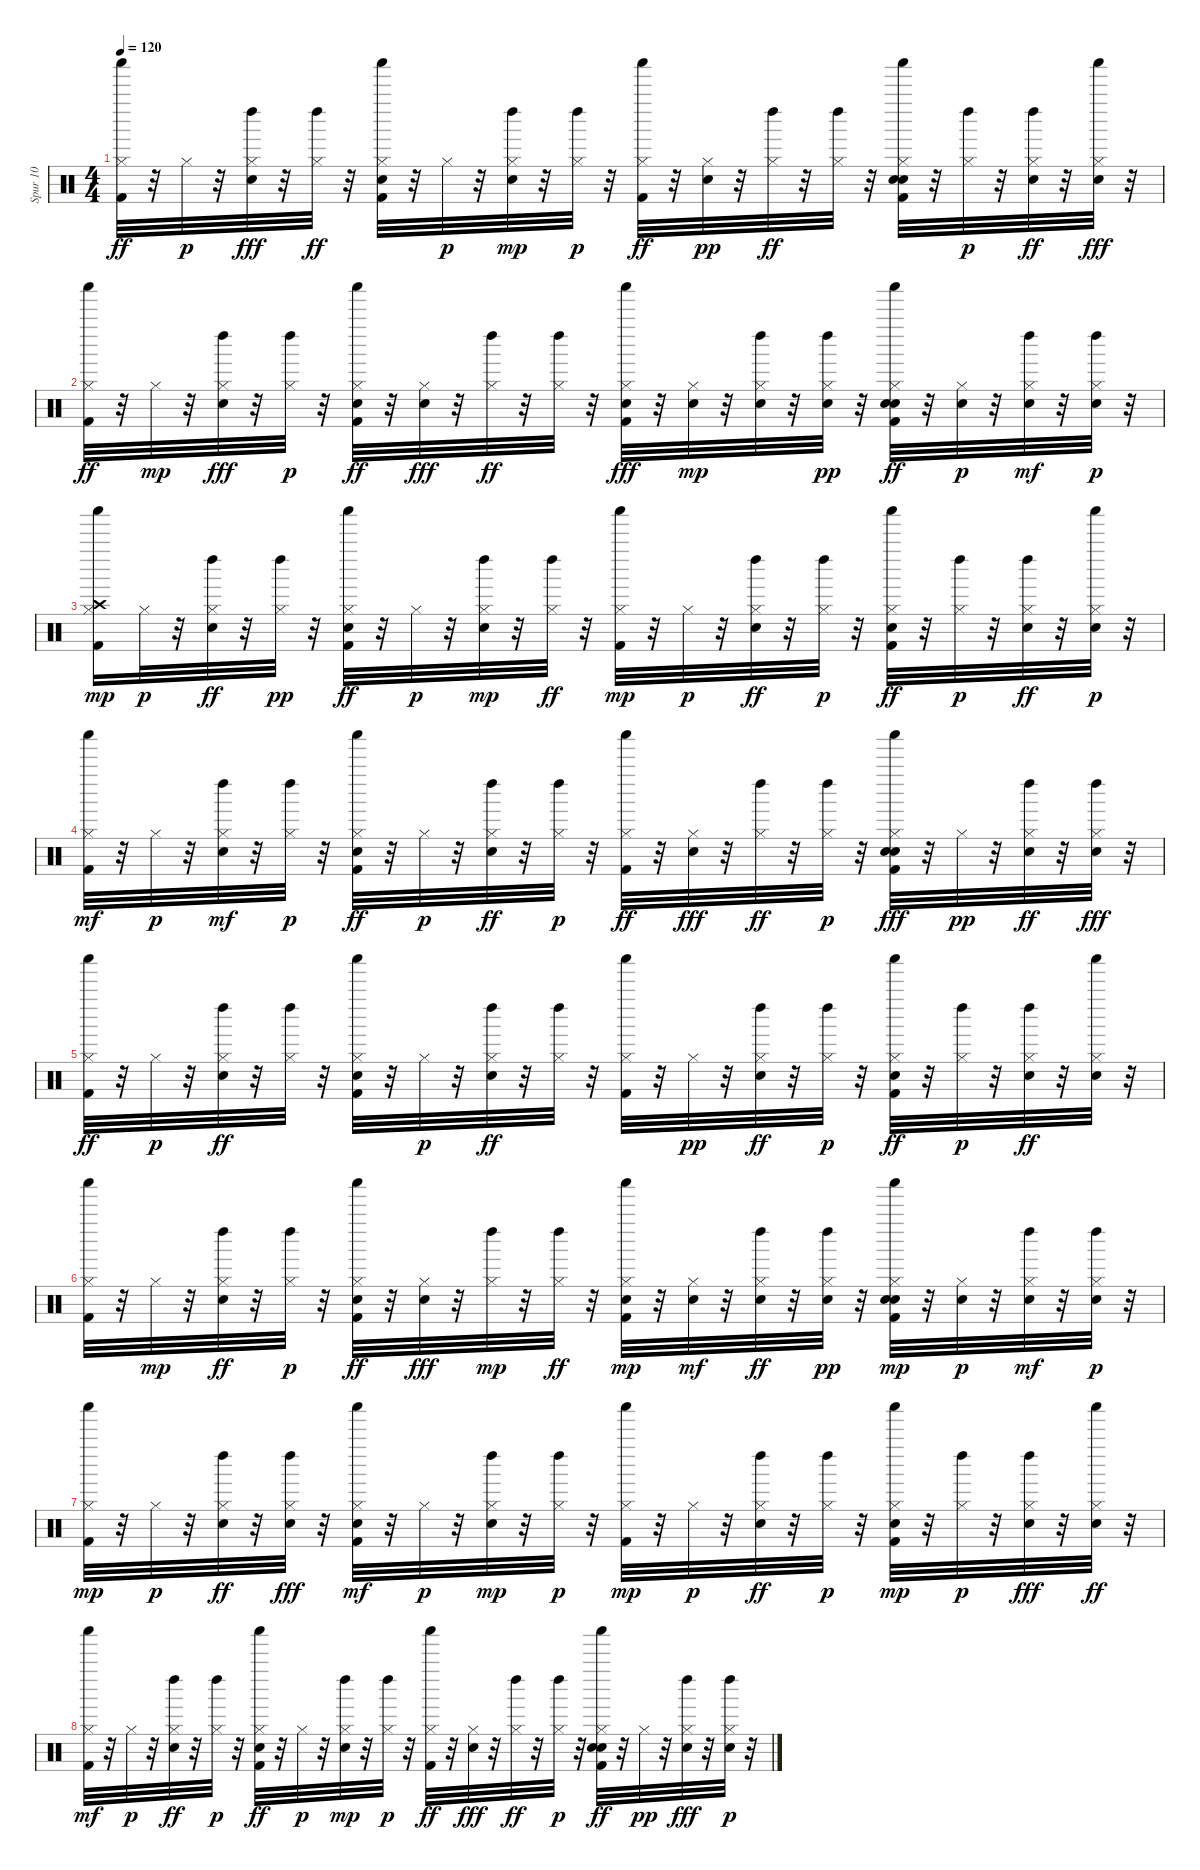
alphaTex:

\track ("Spur 10" "Spur 10") {instrument percussion}
\staff {score}
\articulation defaults
\ts (4 4)
\tempo 120
\clef neutral
\ks c
("Shaker (hit)" "Kick (hit) 2" "Hi-Hat (closed)").32{dy ff} r.32 "Hi-Hat (closed)".32{dy p} r.32 ("Left Maraca (hit)" "Hi-Hat (closed)" "Electric Snare (hit)").32{dy fff} r.32 ("Hi-Hat (closed)" "Left Maraca (hit)").32{dy ff} r.32 ("Kick (hit) 2" "Shaker (hit)" "Hi-Hat (closed)" "Snare (hit) 2").32 r.32 "Hi-Hat (closed)".32{dy p} r.32 ("Electric Snare (hit)" "Hi-Hat (closed)" "Left Maraca (hit)").32{dy mp} r.32 ("Left Maraca (hit)" "Hi-Hat (closed)").32{dy p} r.32 ("Hi-Hat (closed)" "Shaker (hit)" "Kick (hit) 2").32{dy ff} r.32 ("Electric Snare (hit)" "Hi-Hat (closed)").32{dy pp} r.32 ("Hi-Hat (closed)" "Left Maraca (hit)").32{dy ff} r.32 ("Hi-Hat (closed)" "Left Maraca (hit)").32 r.32 ("Hi-Hat (closed)" "Electric Snare (hit)" "Kick (hit) 2" "Shaker (hit)" "Snare (hit) 2").32 r.32 ("Left Maraca (hit)" "Hi-Hat (closed)").32{dy p} r.32 ("Left Maraca (hit)" "Electric Snare (hit)" "Hi-Hat (closed)").32{dy ff} r.32 ("Hi-Hat (closed)" "Electric Snare (hit)" "Shaker (hit)").32{dy fff} r.32 |
("Hi-Hat (closed)" "Kick (hit) 2" "Shaker (hit)").32{dy ff} r.32 "Hi-Hat (closed)".32{dy mp} r.32 ("Left Maraca (hit)" "Hi-Hat (closed)" "Electric Snare (hit)").32{dy fff} r.32 ("Hi-Hat (closed)" "Left Maraca (hit)").32{dy p} r.32 ("Snare (hit) 2" "Shaker (hit)" "Hi-Hat (closed)" "Kick (hit) 2").32{dy ff} r.32 ("Hi-Hat (closed)" "Electric Snare (hit)").32{dy fff} r.32 ("Left Maraca (hit)" "Hi-Hat (closed)").32{dy ff} r.32 ("Hi-Hat (closed)" "Left Maraca (hit)").32 r.32 ("Kick (hit) 2" "Hi-Hat (closed)" "Electric Snare (hit)" "Shaker (hit)").32{dy fff} r.32 ("Hi-Hat (closed)" "Electric Snare (hit)").32{dy mp} r.32 ("Left Maraca (hit)" "Hi-Hat (closed)" "Electric Snare (hit)").32 r.32 ("Electric Snare (hit)" "Left Maraca (hit)" "Hi-Hat (closed)").32{dy pp} r.32 ("Shaker (hit)" "Electric Snare (hit)" "Hi-Hat (closed)" "Kick (hit) 2" "Snare (hit) 2").32{dy ff} r.32 ("Electric Snare (hit)" "Hi-Hat (closed)").32{dy p} r.32 ("Electric Snare (hit)" "Hi-Hat (closed)" "Left Maraca (hit)").32{dy mf} r.32 ("Left Maraca (hit)" "Electric Snare (hit)" "Hi-Hat (closed)").32{dy p} r.32 |
("Crash high (hit)" "Kick (hit) 2" "Shaker (hit)" "Hi-Hat (closed)").16{dy mp} "Hi-Hat (closed)".32{dy p} r.32 ("Electric Snare (hit)" "Hi-Hat (closed)" "Left Maraca (hit)").32{dy ff} r.32 ("Left Maraca (hit)" "Hi-Hat (closed)").32{dy pp} r.32 ("Kick (hit) 2" "Hi-Hat (closed)" "Shaker (hit)" "Snare (hit) 2").32{dy ff} r.32 "Hi-Hat (closed)".32{dy p} r.32 ("Hi-Hat (closed)" "Electric Snare (hit)" "Left Maraca (hit)").32{dy mp} r.32 ("Hi-Hat (closed)" "Left Maraca (hit)").32{dy ff} r.32 ("Kick (hit) 2" "Hi-Hat (closed)" "Shaker (hit)").32{dy mp} r.32 "Hi-Hat (closed)".32{dy p} r.32 ("Electric Snare (hit)" "Hi-Hat (closed)" "Left Maraca (hit)").32{dy ff} r.32 ("Left Maraca (hit)" "Hi-Hat (closed)").32{dy p} r.32 ("Snare (hit) 2" "Hi-Hat (closed)" "Kick (hit) 2" "Shaker (hit)").32{dy ff} r.32 ("Hi-Hat (closed)" "Left Maraca (hit)").32{dy p} r.32 ("Hi-Hat (closed)" "Electric Snare (hit)" "Left Maraca (hit)").32{dy ff} r.32 ("Electric Snare (hit)" "Hi-Hat (closed)" "Shaker (hit)").32{dy p} r.32 |
("Shaker (hit)" "Kick (hit) 2" "Hi-Hat (closed)").32{dy mf} r.32 "Hi-Hat (closed)".32{dy p} r.32 ("Hi-Hat (closed)" "Electric Snare (hit)" "Left Maraca (hit)").32{dy mf} r.32 ("Hi-Hat (closed)" "Left Maraca (hit)").32{dy p} r.32 ("Snare (hit) 2" "Hi-Hat (closed)" "Kick (hit) 2" "Shaker (hit)").32{dy ff} r.32 "Hi-Hat (closed)".32{dy p} r.32 ("Left Maraca (hit)" "Electric Snare (hit)" "Hi-Hat (closed)").32{dy ff} r.32 ("Left Maraca (hit)" "Hi-Hat (closed)").32{dy p} r.32 ("Kick (hit) 2" "Shaker (hit)" "Hi-Hat (closed)").32{dy ff} r.32 ("Hi-Hat (closed)" "Electric Snare (hit)").32{dy fff} r.32 ("Hi-Hat (closed)" "Left Maraca (hit)").32{dy ff} r.32 ("Hi-Hat (closed)" "Left Maraca (hit)").32{dy p} r.32 ("Shaker (hit)" "Snare (hit) 2" "Kick (hit) 2" "Hi-Hat (closed)" "Electric Snare (hit)").32{dy fff} r.32 "Hi-Hat (closed)".32{dy pp} r.32 ("Left Maraca (hit)" "Electric Snare (hit)" "Hi-Hat (closed)").32{dy ff} r.32 ("Left Maraca (hit)" "Hi-Hat (closed)" "Electric Snare (hit)").32{dy fff} r.32 |
("Kick (hit) 2" "Hi-Hat (closed)" "Shaker (hit)").32{dy ff} r.32 "Hi-Hat (closed)".32{dy p} r.32 ("Electric Snare (hit)" "Left Maraca (hit)" "Hi-Hat (closed)").32{dy ff} r.32 ("Hi-Hat (closed)" "Left Maraca (hit)").32 r.32 ("Kick (hit) 2" "Snare (hit) 2" "Shaker (hit)" "Hi-Hat (closed)").32 r.32 "Hi-Hat (closed)".32{dy p} r.32 ("Left Maraca (hit)" "Electric Snare (hit)" "Hi-Hat (closed)").32{dy ff} r.32 ("Hi-Hat (closed)" "Left Maraca (hit)").32 r.32 ("Hi-Hat (closed)" "Kick (hit) 2" "Shaker (hit)").32 r.32 "Hi-Hat (closed)".32{dy pp} r.32 ("Left Maraca (hit)" "Electric Snare (hit)" "Hi-Hat (closed)").32{dy ff} r.32 ("Left Maraca (hit)" "Hi-Hat (closed)").32{dy p} r.32 ("Hi-Hat (closed)" "Kick (hit) 2" "Snare (hit) 2" "Shaker (hit)").32{dy ff} r.32 ("Left Maraca (hit)" "Hi-Hat (closed)").32{dy p} r.32 ("Electric Snare (hit)" "Hi-Hat (closed)" "Left Maraca (hit)").32{dy ff} r.32 ("Hi-Hat (closed)" "Shaker (hit)" "Electric Snare (hit)").32 r.32 |
("Kick (hit) 2" "Shaker (hit)" "Hi-Hat (closed)").32 r.32 "Hi-Hat (closed)".32{dy mp} r.32 ("Electric Snare (hit)" "Left Maraca (hit)" "Hi-Hat (closed)").32{dy ff} r.32 ("Hi-Hat (closed)" "Left Maraca (hit)").32{dy p} r.32 ("Shaker (hit)" "Hi-Hat (closed)" "Snare (hit) 2" "Kick (hit) 2").32{dy ff} r.32 ("Hi-Hat (closed)" "Electric Snare (hit)").32{dy fff} r.32 ("Hi-Hat (closed)" "Left Maraca (hit)").32{dy mp} r.32 ("Hi-Hat (closed)" "Left Maraca (hit)").32{dy ff} r.32 ("Shaker (hit)" "Electric Snare (hit)" "Kick (hit) 2" "Hi-Hat (closed)").32{dy mp} r.32 ("Hi-Hat (closed)" "Electric Snare (hit)").32{dy mf} r.32 ("Electric Snare (hit)" "Hi-Hat (closed)" "Left Maraca (hit)").32{dy ff} r.32 ("Electric Snare (hit)" "Hi-Hat (closed)" "Left Maraca (hit)").32{dy pp} r.32 ("Electric Snare (hit)" "Kick (hit) 2" "Snare (hit) 2" "Hi-Hat (closed)" "Shaker (hit)").32{dy mp} r.32 ("Electric Snare (hit)" "Hi-Hat (closed)").32{dy p} r.32 ("Hi-Hat (closed)" "Electric Snare (hit)" "Left Maraca (hit)").32{dy mf} r.32 ("Left Maraca (hit)" "Electric Snare (hit)" "Hi-Hat (closed)").32{dy p} r.32 |
("Shaker (hit)" "Kick (hit) 2" "Hi-Hat (closed)").32{dy mp} r.32 "Hi-Hat (closed)".32{dy p} r.32 ("Left Maraca (hit)" "Electric Snare (hit)" "Hi-Hat (closed)").32{dy ff} r.32 ("Hi-Hat (closed)" "Left Maraca (hit)" "Electric Snare (hit)").32{dy fff} r.32 ("Kick (hit) 2" "Snare (hit) 2" "Hi-Hat (closed)" "Shaker (hit)").32{dy mf} r.32 "Hi-Hat (closed)".32{dy p} r.32 ("Electric Snare (hit)" "Hi-Hat (closed)" "Left Maraca (hit)").32{dy mp} r.32 ("Left Maraca (hit)" "Hi-Hat (closed)").32{dy p} r.32 ("Kick (hit) 2" "Shaker (hit)" "Hi-Hat (closed)").32{dy mp} r.32 "Hi-Hat (closed)".32{dy p} r.32 ("Left Maraca (hit)" "Electric Snare (hit)" "Hi-Hat (closed)").32{dy ff} r.32 ("Left Maraca (hit)" "Hi-Hat (closed)").32{dy p} r.32 ("Shaker (hit)" "Snare (hit) 2" "Kick (hit) 2" "Hi-Hat (closed)").32{dy mp} r.32 ("Left Maraca (hit)" "Hi-Hat (closed)").32{dy p} r.32 ("Left Maraca (hit)" "Hi-Hat (closed)" "Electric Snare (hit)").32{dy fff} r.32 ("Hi-Hat (closed)" "Shaker (hit)" "Electric Snare (hit)").32{dy ff} r.32 |
("Shaker (hit)" "Kick (hit) 2" "Hi-Hat (closed)").32{dy mf} r.32 "Hi-Hat (closed)".32{dy p} r.32 ("Electric Snare (hit)" "Left Maraca (hit)" "Hi-Hat (closed)").32{dy ff} r.32 ("Left Maraca (hit)" "Hi-Hat (closed)").32{dy p} r.32 ("Shaker (hit)" "Hi-Hat (closed)" "Snare (hit) 2" "Kick (hit) 2").32{dy ff} r.32 "Hi-Hat (closed)".32{dy p} r.32 ("Hi-Hat (closed)" "Electric Snare (hit)" "Left Maraca (hit)").32{dy mp} r.32 ("Left Maraca (hit)" "Hi-Hat (closed)").32{dy p} r.32 ("Kick (hit) 2" "Shaker (hit)" "Hi-Hat (closed)").32{dy ff} r.32 ("Hi-Hat (closed)" "Electric Snare (hit)").32{dy fff} r.32 ("Left Maraca (hit)" "Hi-Hat (closed)").32{dy ff} r.32 ("Left Maraca (hit)" "Hi-Hat (closed)").32{dy p} r.32 ("Electric Snare (hit)" "Snare (hit) 2" "Kick (hit) 2" "Hi-Hat (closed)" "Shaker (hit)").32{dy ff} r.32 "Hi-Hat (closed)".32{dy pp} r.32 ("Hi-Hat (closed)" "Left Maraca (hit)" "Electric Snare (hit)").32{dy fff} r.32 ("Electric Snare (hit)" "Left Maraca (hit)" "Hi-Hat (closed)").32{dy p} r.32
